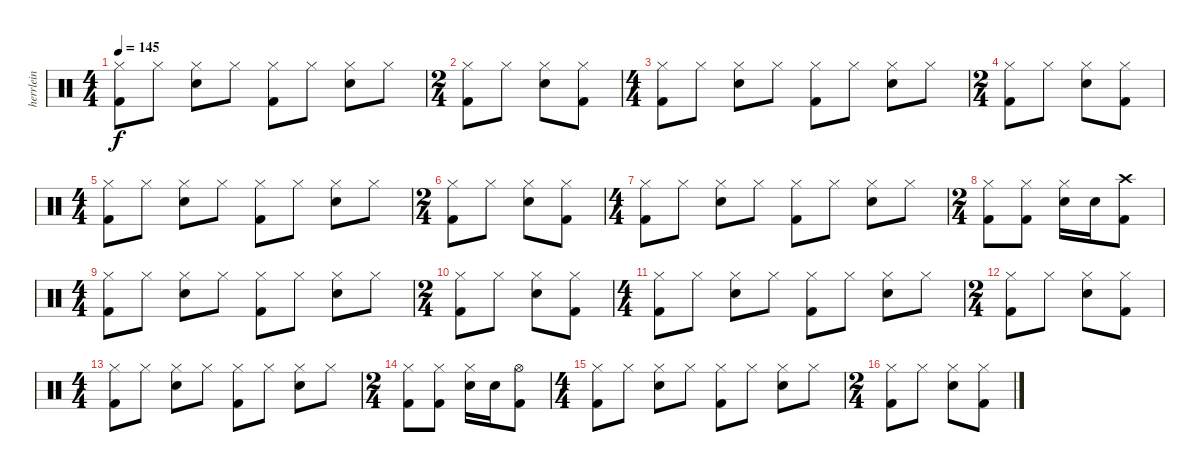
\track ("herrlein" "herrlein") {instrument percussion}
\staff {score}
\articulation defaults
\ts (4 4)
\tempo 145
\clef neutral
\ks c
("Kick (hit) 2" "Hi-Hat (closed)").8{dy f} "Hi-Hat (closed)".8 ("Hi-Hat (closed)" "Snare (hit) 2").8 "Hi-Hat (closed)".8 ("Kick (hit) 2" "Hi-Hat (closed)").8 "Hi-Hat (closed)".8 ("Hi-Hat (closed)" "Snare (hit) 2").8 "Hi-Hat (closed)".8 |
\ts (2 4)
("Kick (hit) 2" "Hi-Hat (closed)").8 "Hi-Hat (closed)".8 ("Hi-Hat (closed)" "Snare (hit) 2").8 ("Kick (hit) 2" "Hi-Hat (closed)").8 |
\ts (4 4)
("Kick (hit) 2" "Hi-Hat (closed)").8 "Hi-Hat (closed)".8 ("Hi-Hat (closed)" "Snare (hit) 2").8 "Hi-Hat (closed)".8 ("Kick (hit) 2" "Hi-Hat (closed)").8 "Hi-Hat (closed)".8 ("Hi-Hat (closed)" "Snare (hit) 2").8 "Hi-Hat (closed)".8 |
\ts (2 4)
("Kick (hit) 2" "Hi-Hat (closed)").8 "Hi-Hat (closed)".8 ("Hi-Hat (closed)" "Snare (hit) 2").8 ("Kick (hit) 2" "Hi-Hat (closed)").8 |
\ts (4 4)
("Kick (hit) 2" "Hi-Hat (closed)").8 "Hi-Hat (closed)".8 ("Hi-Hat (closed)" "Snare (hit) 2").8 "Hi-Hat (closed)".8 ("Kick (hit) 2" "Hi-Hat (closed)").8 "Hi-Hat (closed)".8 ("Hi-Hat (closed)" "Snare (hit) 2").8 "Hi-Hat (closed)".8 |
\ts (2 4)
("Kick (hit) 2" "Hi-Hat (closed)").8 "Hi-Hat (closed)".8 ("Hi-Hat (closed)" "Snare (hit) 2").8 ("Kick (hit) 2" "Hi-Hat (closed)").8 |
\ts (4 4)
("Kick (hit) 2" "Hi-Hat (closed)").8 "Hi-Hat (closed)".8 ("Hi-Hat (closed)" "Snare (hit) 2").8 "Hi-Hat (closed)".8 ("Kick (hit) 2" "Hi-Hat (closed)").8 "Hi-Hat (closed)".8 ("Hi-Hat (closed)" "Snare (hit) 2").8 "Hi-Hat (closed)".8 |
\ts (2 4)
("Kick (hit) 2" "Hi-Hat (closed)").8 ("Kick (hit) 2" "Hi-Hat (closed)").8 ("Hi-Hat (closed)" "Snare (hit) 2").16 "Snare (hit) 2".16 ("Kick (hit) 2" "Crash high (hit)").8 |
\ts (4 4)
("Kick (hit) 2" "Hi-Hat (closed)").8 "Hi-Hat (closed)".8 ("Hi-Hat (closed)" "Snare (hit) 2").8 "Hi-Hat (closed)".8 ("Kick (hit) 2" "Hi-Hat (closed)").8 "Hi-Hat (closed)".8 ("Hi-Hat (closed)" "Snare (hit) 2").8 "Hi-Hat (closed)".8 |
\ts (2 4)
("Kick (hit) 2" "Hi-Hat (closed)").8 "Hi-Hat (closed)".8 ("Hi-Hat (closed)" "Snare (hit) 2").8 ("Kick (hit) 2" "Hi-Hat (closed)").8 |
\ts (4 4)
("Kick (hit) 2" "Hi-Hat (closed)").8 "Hi-Hat (closed)".8 ("Hi-Hat (closed)" "Snare (hit) 2").8 "Hi-Hat (closed)".8 ("Kick (hit) 2" "Hi-Hat (closed)").8 "Hi-Hat (closed)".8 ("Hi-Hat (closed)" "Snare (hit) 2").8 "Hi-Hat (closed)".8 |
\ts (2 4)
("Kick (hit) 2" "Hi-Hat (closed)").8 "Hi-Hat (closed)".8 ("Hi-Hat (closed)" "Snare (hit) 2").8 ("Kick (hit) 2" "Hi-Hat (closed)").8 |
\ts (4 4)
("Kick (hit) 2" "Hi-Hat (closed)").8 "Hi-Hat (closed)".8 ("Hi-Hat (closed)" "Snare (hit) 2").8 "Hi-Hat (closed)".8 ("Kick (hit) 2" "Hi-Hat (closed)").8 "Hi-Hat (closed)".8 ("Hi-Hat (closed)" "Snare (hit) 2").8 "Hi-Hat (closed)".8 |
\ts (2 4)
("Kick (hit) 2" "Hi-Hat (closed)").8 ("Kick (hit) 2" "Hi-Hat (closed)").8 ("Hi-Hat (closed)" "Snare (hit) 2").16 "Snare (hit) 2".16 ("Kick (hit) 2" "Hi-Hat (open)").8 |
\ts (4 4)
("Kick (hit) 2" "Hi-Hat (closed)").8 "Hi-Hat (closed)".8 ("Hi-Hat (closed)" "Snare (hit) 2").8 "Hi-Hat (closed)".8 ("Kick (hit) 2" "Hi-Hat (closed)").8 "Hi-Hat (closed)".8 ("Hi-Hat (closed)" "Snare (hit) 2").8 "Hi-Hat (closed)".8 |
\ts (2 4)
("Kick (hit) 2" "Hi-Hat (closed)").8 "Hi-Hat (closed)".8 ("Hi-Hat (closed)" "Snare (hit) 2").8 ("Kick (hit) 2" "Hi-Hat (closed)").8
